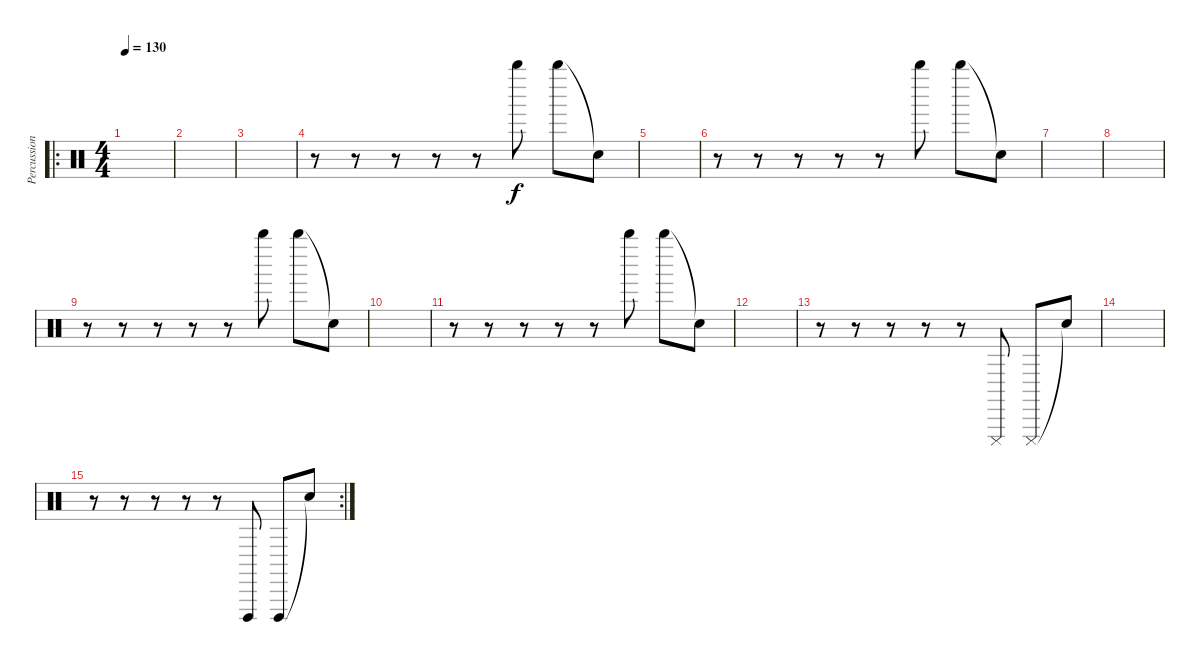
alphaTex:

\track ("Percussion" "Percussion") {instrument percussion}
\staff {score}
\articulation defaults
\ro
\ts (4 4)
\tempo 130
\clef neutral
\ks c
|
|
|
r.8 r.8 r.8 r.8 r.8 "Whistle high (hit)".8 "Whistle high (hit)".8 "Snare (hit)"{t}.8 |
|
r.8 r.8 r.8 r.8 r.8 "Whistle high (hit)".8 "Whistle high (hit)".8 "Snare (hit)"{t}.8 |
|
|
r.8 r.8 r.8 r.8 r.8 "Whistle high (hit)".8 "Whistle high (hit)".8 "Snare (hit)"{t}.8 |
|
r.8 r.8 r.8 r.8 r.8 "Whistle high (hit)".8 "Whistle high (hit)".8 "Snare (hit)"{t}.8 |
|
r.8 r.8 r.8 r.8 r.8 "Cuica (mute)".8 "Cuica (mute)".8 "Snare (hit)"{t}.8 |
|
\rc 2
r.8 r.8 r.8 r.8 r.8 "Cuica (open)".8 "Cuica (open)".8 "Snare (hit)"{t}.8
